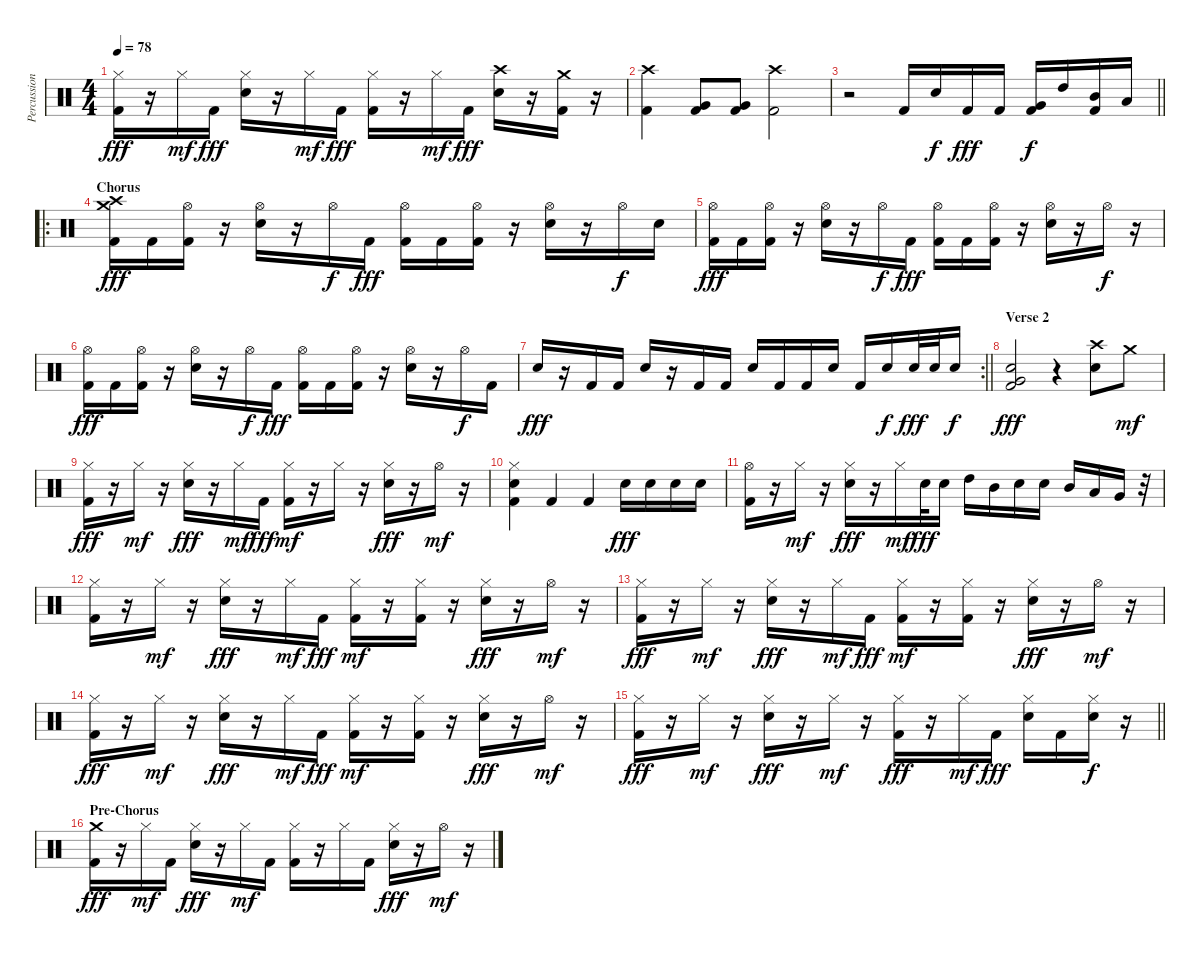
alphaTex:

\track ("Percussion" "Percussion") {instrument percussion}
\staff {score}
\articulation defaults
\ts (4 4)
\tempo 78
\clef neutral
\ks c
("Hi-Hat (closed)" "Kick (hit) 2").16{dy fff} r.16 "Hi-Hat (closed)".16{dy mf} "Kick (hit) 2".16{dy fff} ("Hi-Hat (closed)" "Electric Snare (hit)").16 r.16 "Hi-Hat (closed)".16{dy mf} "Kick (hit) 2".16{dy fff} ("Hi-Hat (closed)" "Kick (hit) 2").16 r.16 "Hi-Hat (closed)".16{dy mf} "Kick (hit) 2".16{dy fff} ("Crash high (hit)" "Electric Snare (hit)").16 r.16 ("Crash medium (hit)" "Kick (hit) 2").16 r.16 |
("Crash high (hit)" "Kick (hit) 2").4 ("Very Low Tom (hit)" "Kick (hit) 2").8 ("Very Low Tom (hit)" "Kick (hit) 2").8 ("Crash high (hit)" "Kick (hit) 2").2 |
\barLineRight lightlight
r.2 "Kick (hit) 2".16 "Electric Snare (hit)".16{dy f} "Kick (hit) 2".16{dy fff} "Kick (hit) 2".16 ("Very Low Tom (hit)" "Kick (hit) 2").16{dy f} "High Tom (hit)".16 ("Mid Tom (hit)" "Kick (hit) 2").16 "Low Tom (hit)".16 |
\ro
\section ("" "Chorus")
("Crash high (hit)" "Crash medium (hit)" "Kick (hit) 2").16{dy fff} "Kick (hit) 2".16 ("Hi-Hat (open)" "Kick (hit) 2").16 r.16 ("Hi-Hat (open)" "Electric Snare (hit)").16 r.16 "Hi-Hat (open)".16{dy f} "Kick (hit) 2".16{dy fff} ("Hi-Hat (open)" "Kick (hit) 2").16 "Kick (hit) 2".16 ("Hi-Hat (open)" "Kick (hit) 2").16 r.16 ("Hi-Hat (open)" "Electric Snare (hit)").16 r.16 "Hi-Hat (open)".16{dy f} "Electric Snare (hit)".16 |
("Hi-Hat (open)" "Kick (hit) 2").16{dy fff} "Kick (hit) 2".16 ("Hi-Hat (open)" "Kick (hit) 2").16 r.16 ("Hi-Hat (open)" "Electric Snare (hit)").16 r.16 "Hi-Hat (open)".16{dy f} "Kick (hit) 2".16{dy fff} ("Hi-Hat (open)" "Kick (hit) 2").16 "Kick (hit) 2".16 ("Hi-Hat (open)" "Kick (hit) 2").16 r.16 ("Hi-Hat (open)" "Electric Snare (hit)").16 r.16 "Hi-Hat (open)".16{dy f} r.16 |
("Hi-Hat (open)" "Kick (hit) 2").16{dy fff} "Kick (hit) 2".16 ("Hi-Hat (open)" "Kick (hit) 2").16 r.16 ("Hi-Hat (open)" "Electric Snare (hit)").16 r.16 "Hi-Hat (open)".16{dy f} "Kick (hit) 2".16{dy fff} ("Hi-Hat (open)" "Kick (hit) 2").16 "Kick (hit) 2".16 ("Hi-Hat (open)" "Kick (hit) 2").16 r.16 ("Hi-Hat (open)" "Electric Snare (hit)").16 r.16 "Hi-Hat (open)".16{dy f} "Kick (hit) 2".16 |
\rc 2
\barLineRight lightlight "Electric Snare (hit)".16{dy fff}
r.16 "Kick (hit) 2".16 "Kick (hit) 2".16 "Electric Snare (hit)".16 r.16 "Kick (hit) 2".16 "Kick (hit) 2".16 "Electric Snare (hit)".16 "Kick (hit) 2".16 "Kick (hit) 2".16 "Electric Snare (hit)".16 "Kick (hit) 2".16 "Electric Snare (hit)".16{dy f} "Electric Snare (hit)".32{dy fff} "Electric Snare (hit)".32 "Electric Snare (hit)".16{dy f} |
\section ("" "Verse 2")
("Very Low Tom (hit)" "Electric Snare (hit)" "Kick (hit) 2").2{dy fff} r.4 ("Crash high (hit)" "Electric Snare (hit)").8 "Crash medium (hit)".8{dy mf} |
("Hi-Hat (closed)" "Kick (hit) 2").16{dy fff} r.16 "Hi-Hat (closed)".16{dy mf} r.16 ("Hi-Hat (closed)" "Electric Snare (hit)").16{dy fff} r.16 "Hi-Hat (closed)".16{dy mf} "Kick (hit) 2".16{dy fff} ("Hi-Hat (closed)" "Kick (hit) 2").16{dy mf} r.16 "Hi-Hat (closed)".16 r.16 ("Hi-Hat (closed)" "Electric Snare (hit)").16{dy fff} r.16 "Hi-Hat (open)".16{dy mf} r.16 |
("Hi-Hat (closed)" "Electric Snare (hit)" "Kick (hit) 2").4 "Kick (hit) 2".4 "Kick (hit) 2".4 "Electric Snare (hit)".16{dy fff} "Electric Snare (hit)".16 "Electric Snare (hit)".16 "Electric Snare (hit)".16 |
("Hi-Hat (open)" "Kick (hit) 2").16 r.16 "Hi-Hat (closed)".16{dy mf} r.16 ("Hi-Hat (closed)" "Electric Snare (hit)").16{dy fff} r.16 "Hi-Hat (closed)".16{dy mf} "Electric Snare (hit)".32{dy fff} "Electric Snare (hit)".16 "High Tom (hit)".16 "Mid Tom (hit)".16 "Electric Snare (hit)".16 "Electric Snare (hit)".16 "Mid Tom (hit)".16 "Low Tom (hit)".16 "Very Low Tom (hit)".16 r.32 |
("Hi-Hat (closed)" "Kick (hit) 2").16 r.16 "Hi-Hat (closed)".16{dy mf} r.16 ("Hi-Hat (closed)" "Electric Snare (hit)").16{dy fff} r.16 "Hi-Hat (closed)".16{dy mf} "Kick (hit) 2".16{dy fff} ("Hi-Hat (closed)" "Kick (hit) 2").16{dy mf} r.16 ("Hi-Hat (closed)" "Kick (hit) 2").16 r.16 ("Hi-Hat (closed)" "Electric Snare (hit)").16{dy fff} r.16 "Hi-Hat (open)".16{dy mf} r.16 |
("Hi-Hat (closed)" "Kick (hit) 2").16{dy fff} r.16 "Hi-Hat (closed)".16{dy mf} r.16 ("Hi-Hat (closed)" "Electric Snare (hit)").16{dy fff} r.16 "Hi-Hat (closed)".16{dy mf} "Kick (hit) 2".16{dy fff} ("Hi-Hat (closed)" "Kick (hit) 2").16{dy mf} r.16 ("Hi-Hat (closed)" "Kick (hit) 2").16 r.16 ("Hi-Hat (closed)" "Electric Snare (hit)").16{dy fff} r.16 "Hi-Hat (open)".16{dy mf} r.16 |
("Hi-Hat (closed)" "Kick (hit) 2").16{dy fff} r.16 "Hi-Hat (closed)".16{dy mf} r.16 ("Hi-Hat (closed)" "Electric Snare (hit)").16{dy fff} r.16 "Hi-Hat (closed)".16{dy mf} "Kick (hit) 2".16{dy fff} ("Hi-Hat (closed)" "Kick (hit) 2").16{dy mf} r.16 ("Hi-Hat (closed)" "Kick (hit) 2").16 r.16 ("Hi-Hat (closed)" "Electric Snare (hit)").16{dy fff} r.16 "Hi-Hat (open)".16{dy mf} r.16 |
\barLineRight lightlight
("Hi-Hat (closed)" "Kick (hit) 2").16{dy fff} r.16 "Hi-Hat (closed)".16{dy mf} r.16 ("Hi-Hat (closed)" "Electric Snare (hit)").16{dy fff} r.16 "Hi-Hat (closed)".16{dy mf} r.16 ("Hi-Hat (closed)" "Kick (hit) 2").16{dy fff} r.16 "Hi-Hat (closed)".16{dy mf} "Kick (hit) 2".16{dy fff} ("Hi-Hat (closed)" "Electric Snare (hit)").16 "Kick (hit) 2".16 ("Hi-Hat (closed)" "Electric Snare (hit)").16{dy f} r.16 |
\section ("" "Pre-Chorus")
("Crash medium (hit)" "Kick (hit) 2").16{dy fff} r.16 "Hi-Hat (closed)".16{dy mf} "Kick (hit) 2".16 ("Hi-Hat (closed)" "Electric Snare (hit)").16{dy fff} r.16 "Hi-Hat (closed)".16{dy mf} "Kick (hit) 2".16 ("Hi-Hat (closed)" "Kick (hit) 2").16 r.16 "Hi-Hat (closed)".16 "Kick (hit) 2".16 ("Hi-Hat (closed)" "Electric Snare (hit)").16{dy fff} r.16 "Hi-Hat (open)".16{dy mf} r.16
